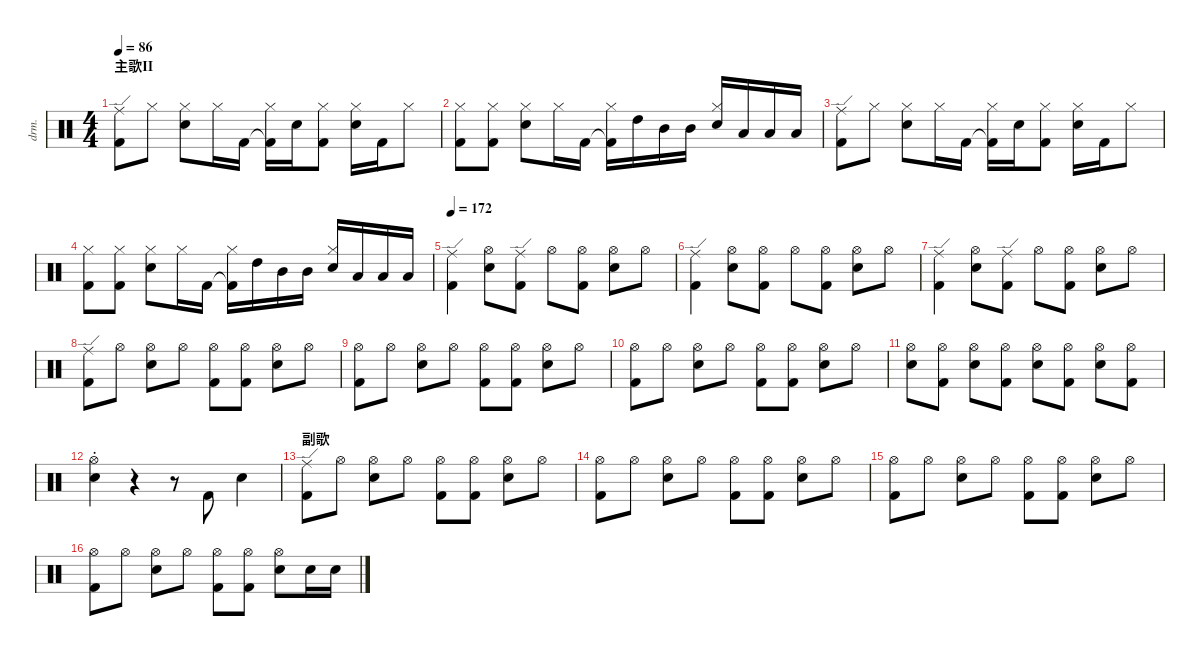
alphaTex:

\defaultSystemsLayout 4
\hideDynamics
\bracketExtendMode nobrackets
\track ("Drums" "drm.") {solo instrument percussion}
\staff {score}
\articulation defaults
\ts (4 4)
\section ("" "主歌II")
\tempo 86
\clef neutral
\ks c
("Ride (edge)" "Kick (hit) 2").8{dy ff beam Down} "Hi-Hat (closed)".8{dy mf beam Down} ("Snare (hit) 2" "Hi-Hat (closed)").8{beam Down} "Hi-Hat (closed)".16{beam Down} "Kick (hit) 2".16{beam Down} ("Kick (hit) 2"{t} "Hi-Hat (closed)").16{beam Down} "Snare (hit) 2".16{beam Down} ("Kick (hit) 2" "Hi-Hat (closed)").8{beam Down} ("Hi-Hat (closed)" "Snare (hit) 2").16{beam Down} "Kick (hit) 2".16{beam Down} "Hi-Hat (closed)".8{beam Down} |
("Kick (hit) 2" "Hi-Hat (closed)").8{beam Down} ("Hi-Hat (closed)" "Kick (hit) 2").8{beam Down} ("Snare (hit) 2" "Hi-Hat (closed)").8{beam Down} "Hi-Hat (closed)".16{beam Down} "Kick (hit) 2".16{beam Down} ("Kick (hit) 2"{t} "Hi-Hat (closed)").16{beam Down} "High Tom (hit)".16{dy fff beam Down} "Mid Tom (hit)".16{dy mf beam Down} "Mid Tom (hit)".16{beam Down} ("Snare (hit) 2" "Hi-Hat (closed)").16{beam Up} "Low Tom (hit)".16{dy fff beam Up} "Low Tom (hit)".16{beam Up} "Low Tom (hit)".16{beam Up} |
("Ride (edge)" "Kick (hit) 2").8{beam Down} "Hi-Hat (closed)".8{dy mf beam Down} ("Snare (hit) 2" "Hi-Hat (closed)").8{beam Down} "Hi-Hat (closed)".16{beam Down} "Kick (hit) 2".16{beam Down} ("Kick (hit) 2"{t} "Hi-Hat (closed)").16{beam Down} "Snare (hit) 2".16{beam Down} ("Kick (hit) 2" "Hi-Hat (closed)").8{beam Down} ("Hi-Hat (closed)" "Snare (hit) 2").16{beam Down} "Kick (hit) 2".16{beam Down} "Hi-Hat (closed)".8{beam Down} |
("Kick (hit) 2" "Hi-Hat (closed)").8{beam Down} ("Hi-Hat (closed)" "Kick (hit) 2").8{beam Down} ("Snare (hit) 2" "Hi-Hat (closed)").8{beam Down} "Hi-Hat (closed)".16{beam Down} "Kick (hit) 2".16{beam Down} ("Kick (hit) 2"{t} "Hi-Hat (closed)").16{beam Down} "High Tom (hit)".16{dy fff beam Down} "Mid Tom (hit)".16{dy mf beam Down} "Mid Tom (hit)".16{beam Down} ("Snare (hit) 2" "Hi-Hat (closed)").16{beam Up} "Low Tom (hit)".16{dy fff beam Up} "Low Tom (hit)".16{beam Up} "Low Tom (hit)".16{beam Up} |
\tempo 172
("Kick (hit) 2" "Ride (edge)").4{dy ff beam Down} ("Snare (hit) 2" "Hi-Hat (open)").8{dy mf beam Down} ("Ride (edge)" "Kick (hit) 2").8{dy ff beam Down} "Hi-Hat (open)".8{beam Down} ("Hi-Hat (open)" "Kick (hit) 2").8{beam Down} ("Hi-Hat (open)" "Snare (hit) 2").8{beam Down} "Hi-Hat (open)".8{beam Down} |
("Kick (hit) 2" "Ride (edge)").4{beam Down} ("Snare (hit) 2" "Hi-Hat (open)").8{dy mf beam Down} ("Kick (hit) 2" "Hi-Hat (open)").8{dy ff beam Down} "Hi-Hat (open)".8{beam Down} ("Hi-Hat (open)" "Kick (hit) 2").8{beam Down} ("Hi-Hat (open)" "Snare (hit) 2").8{beam Down} "Hi-Hat (open)".8{beam Down} |
("Kick (hit) 2" "Ride (edge)").4{beam Down} ("Snare (hit) 2" "Hi-Hat (open)").8{dy mf beam Down} ("Ride (edge)" "Kick (hit) 2").8{dy ff beam Down} "Hi-Hat (open)".8{beam Down} ("Hi-Hat (open)" "Kick (hit) 2").8{beam Down} ("Hi-Hat (open)" "Snare (hit) 2").8{beam Down} "Hi-Hat (open)".8{beam Down} |
("Kick (hit) 2" "Ride (edge)").8{beam Down} "Hi-Hat (open)".8{dy mf beam Down} ("Hi-Hat (open)" "Snare (hit) 2").8{beam Down} "Hi-Hat (open)".8{beam Down} ("Hi-Hat (open)" "Kick (hit) 2").8{beam Down} ("Hi-Hat (open)" "Kick (hit) 2").8{beam Down} ("Hi-Hat (open)" "Snare (hit) 2").8{beam Down} "Hi-Hat (open)".8{beam Down} |
("Kick (hit) 2" "Hi-Hat (open)").8{beam Down} "Hi-Hat (open)".8{beam Down} ("Hi-Hat (open)" "Snare (hit) 2").8{beam Down} "Hi-Hat (open)".8{beam Down} ("Hi-Hat (open)" "Kick (hit) 2").8{beam Down} ("Hi-Hat (open)" "Kick (hit) 2").8{beam Down} ("Hi-Hat (open)" "Snare (hit) 2").8{beam Down} "Hi-Hat (open)".8{beam Down} |
("Hi-Hat (open)" "Kick (hit) 2").8{beam Down} "Hi-Hat (open)".8{beam Down} ("Hi-Hat (open)" "Snare (hit) 2").8{beam Down} "Hi-Hat (open)".8{beam Down} ("Hi-Hat (open)" "Kick (hit) 2").8{beam Down} ("Hi-Hat (open)" "Kick (hit) 2").8{beam Down} ("Hi-Hat (open)" "Snare (hit) 2").8{beam Down} "Hi-Hat (open)".8{beam Down} |
("Snare (hit) 2" "Hi-Hat (open)").8{beam Down} ("Kick (hit) 2" "Hi-Hat (open)").8{beam Down} ("Snare (hit) 2" "Hi-Hat (open)").8{beam Down} ("Kick (hit) 2" "Hi-Hat (open)").8{dy fff beam Down} ("Snare (hit) 2" "Hi-Hat (open)").8{dy mf beam Down} ("Kick (hit) 2" "Hi-Hat (open)").8{beam Down} ("Snare (hit) 2" "Hi-Hat (open)").8{beam Down} ("Kick (hit) 2" "Hi-Hat (open)").8{beam Down} |
("Hi-Hat (open)"{st} "Snare (hit) 2"{st}).4{beam Down} r.4{beam Down} r.8{beam Down} "Kick (hit) 2".8{beam Up} "Snare (hit) 2".4{beam Down} |
\section ("" "副歌")
("Kick (hit) 2" "Ride (edge)").8{dy ff beam Down} "Hi-Hat (open)".8{dy mf beam Down} ("Snare (hit) 2" "Hi-Hat (open)").8{beam Down} "Hi-Hat (open)".8{beam Down} ("Kick (hit) 2" "Hi-Hat (open)").8{beam Down} ("Kick (hit) 2" "Hi-Hat (open)").8{beam Down} ("Snare (hit) 2" "Hi-Hat (open)").8{beam Down} "Hi-Hat (open)".8{beam Down} |
("Kick (hit) 2" "Hi-Hat (open)").8{beam Down} "Hi-Hat (open)".8{beam Down} ("Snare (hit) 2" "Hi-Hat (open)").8{beam Down} "Hi-Hat (open)".8{beam Down} ("Kick (hit) 2" "Hi-Hat (open)").8{beam Down} ("Kick (hit) 2" "Hi-Hat (open)").8{beam Down} ("Snare (hit) 2" "Hi-Hat (open)").8{beam Down} "Hi-Hat (open)".8{beam Down} |
("Kick (hit) 2" "Hi-Hat (open)").8{beam Down} "Hi-Hat (open)".8{beam Down} ("Snare (hit) 2" "Hi-Hat (open)").8{beam Down} "Hi-Hat (open)".8{beam Down} ("Kick (hit) 2" "Hi-Hat (open)").8{beam Down} ("Kick (hit) 2" "Hi-Hat (open)").8{beam Down} ("Snare (hit) 2" "Hi-Hat (open)").8{beam Down} "Hi-Hat (open)".8{beam Down} |
("Kick (hit) 2" "Hi-Hat (open)").8{beam Down} "Hi-Hat (open)".8{beam Down} ("Snare (hit) 2" "Hi-Hat (open)").8{beam Down} "Hi-Hat (open)".8{beam Down} ("Kick (hit) 2" "Hi-Hat (open)").8{beam Down} ("Kick (hit) 2" "Hi-Hat (open)").8{beam Down} ("Snare (hit) 2" "Hi-Hat (open)").8{beam Down} "Snare (hit) 2".16{beam Down} "Snare (hit) 2".16{beam Down}
